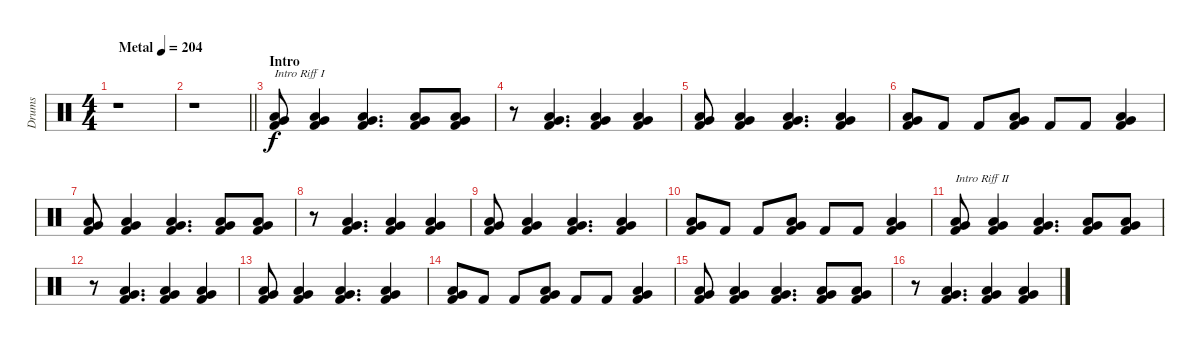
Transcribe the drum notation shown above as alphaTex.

\track ("Drums" "Drums") {instrument percussion}
\staff {score}
\articulation defaults
\ts (4 4)
\tempo (204 "Metal")
\clef neutral
\ks c
r.1{dy f} |
\barLineRight lightlight
r.1 |
\section ("" "Intro")
("Very Low Tom (hit)" "Low Floor Tom (hit)" "Kick (hit) 2").8{txt "Intro Riff I"} ("Very Low Tom (hit)" "Low Floor Tom (hit)" "Kick (hit) 2").4 ("Very Low Tom (hit)" "Low Floor Tom (hit)" "Kick (hit) 2").4{d} ("Very Low Tom (hit)" "Low Floor Tom (hit)" "Kick (hit) 2").8 ("Very Low Tom (hit)" "Low Floor Tom (hit)" "Kick (hit) 2").8 |
r.8 ("Very Low Tom (hit)" "Low Floor Tom (hit)" "Kick (hit) 2").4{d} ("Very Low Tom (hit)" "Low Floor Tom (hit)" "Kick (hit) 2").4 ("Very Low Tom (hit)" "Low Floor Tom (hit)" "Kick (hit) 2").4 |
("Very Low Tom (hit)" "Low Floor Tom (hit)" "Kick (hit) 2").8 ("Very Low Tom (hit)" "Low Floor Tom (hit)" "Kick (hit) 2").4 ("Very Low Tom (hit)" "Low Floor Tom (hit)" "Kick (hit) 2").4{d} ("Very Low Tom (hit)" "Low Floor Tom (hit)" "Kick (hit) 2").4 |
("Very Low Tom (hit)" "Low Floor Tom (hit)" "Kick (hit) 2").8 "Kick (hit) 2".8 "Kick (hit) 2".8 ("Very Low Tom (hit)" "Low Floor Tom (hit)" "Kick (hit) 2").8 "Kick (hit) 2".8 "Kick (hit) 2".8 ("Very Low Tom (hit)" "Low Floor Tom (hit)" "Kick (hit) 2").4 |
("Very Low Tom (hit)" "Low Floor Tom (hit)" "Kick (hit) 2").8 ("Very Low Tom (hit)" "Low Floor Tom (hit)" "Kick (hit) 2").4 ("Very Low Tom (hit)" "Low Floor Tom (hit)" "Kick (hit) 2").4{d} ("Very Low Tom (hit)" "Low Floor Tom (hit)" "Kick (hit) 2").8 ("Very Low Tom (hit)" "Low Floor Tom (hit)" "Kick (hit) 2").8 |
r.8 ("Very Low Tom (hit)" "Low Floor Tom (hit)" "Kick (hit) 2").4{d} ("Very Low Tom (hit)" "Low Floor Tom (hit)" "Kick (hit) 2").4 ("Very Low Tom (hit)" "Low Floor Tom (hit)" "Kick (hit) 2").4 |
("Very Low Tom (hit)" "Low Floor Tom (hit)" "Kick (hit) 2").8 ("Very Low Tom (hit)" "Low Floor Tom (hit)" "Kick (hit) 2").4 ("Very Low Tom (hit)" "Low Floor Tom (hit)" "Kick (hit) 2").4{d} ("Very Low Tom (hit)" "Low Floor Tom (hit)" "Kick (hit) 2").4 |
("Very Low Tom (hit)" "Low Floor Tom (hit)" "Kick (hit) 2").8 "Kick (hit) 2".8 "Kick (hit) 2".8 ("Very Low Tom (hit)" "Low Floor Tom (hit)" "Kick (hit) 2").8 "Kick (hit) 2".8 "Kick (hit) 2".8 ("Very Low Tom (hit)" "Low Floor Tom (hit)" "Kick (hit) 2").4 |
("Very Low Tom (hit)" "Low Floor Tom (hit)" "Kick (hit) 2").8{txt "Intro Riff II"} ("Very Low Tom (hit)" "Low Floor Tom (hit)" "Kick (hit) 2").4 ("Very Low Tom (hit)" "Low Floor Tom (hit)" "Kick (hit) 2").4{d} ("Very Low Tom (hit)" "Low Floor Tom (hit)" "Kick (hit) 2").8 ("Very Low Tom (hit)" "Low Floor Tom (hit)" "Kick (hit) 2").8 |
r.8 ("Very Low Tom (hit)" "Low Floor Tom (hit)" "Kick (hit) 2").4{d} ("Very Low Tom (hit)" "Low Floor Tom (hit)" "Kick (hit) 2").4 ("Very Low Tom (hit)" "Low Floor Tom (hit)" "Kick (hit) 2").4 |
("Very Low Tom (hit)" "Low Floor Tom (hit)" "Kick (hit) 2").8 ("Very Low Tom (hit)" "Low Floor Tom (hit)" "Kick (hit) 2").4 ("Very Low Tom (hit)" "Low Floor Tom (hit)" "Kick (hit) 2").4{d} ("Very Low Tom (hit)" "Low Floor Tom (hit)" "Kick (hit) 2").4 |
("Very Low Tom (hit)" "Low Floor Tom (hit)" "Kick (hit) 2").8 "Kick (hit) 2".8 "Kick (hit) 2".8 ("Very Low Tom (hit)" "Low Floor Tom (hit)" "Kick (hit) 2").8 "Kick (hit) 2".8 "Kick (hit) 2".8 ("Very Low Tom (hit)" "Low Floor Tom (hit)" "Kick (hit) 2").4 |
("Very Low Tom (hit)" "Low Floor Tom (hit)" "Kick (hit) 2").8 ("Very Low Tom (hit)" "Low Floor Tom (hit)" "Kick (hit) 2").4 ("Very Low Tom (hit)" "Low Floor Tom (hit)" "Kick (hit) 2").4{d} ("Very Low Tom (hit)" "Low Floor Tom (hit)" "Kick (hit) 2").8 ("Very Low Tom (hit)" "Low Floor Tom (hit)" "Kick (hit) 2").8 |
r.8 ("Very Low Tom (hit)" "Low Floor Tom (hit)" "Kick (hit) 2").4{d} ("Very Low Tom (hit)" "Low Floor Tom (hit)" "Kick (hit) 2").4 ("Very Low Tom (hit)" "Low Floor Tom (hit)" "Kick (hit) 2").4
